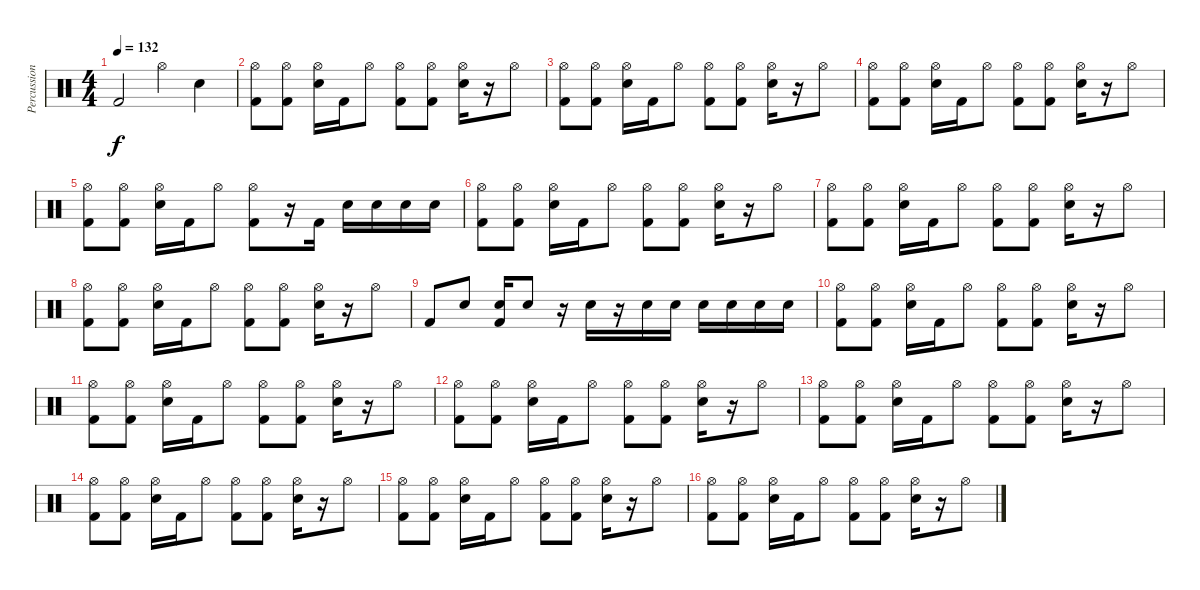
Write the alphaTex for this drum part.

\track ("Percussion" "Percussion") {instrument percussion}
\staff {score}
\articulation defaults
\ts (4 4)
\tempo 132
\clef neutral
\ks c "Kick (hit) 2".2{dy f} "Hi-Hat (open)".4 "Snare (hit) 2".4
|
("Hi-Hat (open)" "Kick (hit) 2").8 ("Hi-Hat (open)" "Kick (hit) 2").8 ("Hi-Hat (open)" "Snare (hit) 2").16 "Kick (hit) 2".16 "Hi-Hat (open)".8 ("Hi-Hat (open)" "Kick (hit) 2").8 ("Hi-Hat (open)" "Kick (hit) 2").8 ("Hi-Hat (open)" "Snare (hit) 2").16 r.16 "Hi-Hat (open)".8 |
("Hi-Hat (open)" "Kick (hit) 2").8 ("Hi-Hat (open)" "Kick (hit) 2").8 ("Hi-Hat (open)" "Snare (hit) 2").16 "Kick (hit) 2".16 "Hi-Hat (open)".8 ("Hi-Hat (open)" "Kick (hit) 2").8 ("Hi-Hat (open)" "Kick (hit) 2").8 ("Hi-Hat (open)" "Snare (hit) 2").16 r.16 "Hi-Hat (open)".8 |
("Hi-Hat (open)" "Kick (hit) 2").8 ("Hi-Hat (open)" "Kick (hit) 2").8 ("Hi-Hat (open)" "Snare (hit) 2").16 "Kick (hit) 2".16 "Hi-Hat (open)".8 ("Hi-Hat (open)" "Kick (hit) 2").8 ("Hi-Hat (open)" "Kick (hit) 2").8 ("Hi-Hat (open)" "Snare (hit) 2").16 r.16 "Hi-Hat (open)".8 |
("Hi-Hat (open)" "Kick (hit) 2").8 ("Hi-Hat (open)" "Kick (hit) 2").8 ("Hi-Hat (open)" "Snare (hit) 2").16 "Kick (hit) 2".16 "Hi-Hat (open)".8 ("Hi-Hat (open)" "Kick (hit) 2").8 r.16 "Kick (hit) 2".16 "Snare (hit) 2".16 "Snare (hit) 2".16 "Snare (hit) 2".16 "Snare (hit) 2".16 |
("Hi-Hat (open)" "Kick (hit) 2").8 ("Hi-Hat (open)" "Kick (hit) 2").8 ("Hi-Hat (open)" "Snare (hit) 2").16 "Kick (hit) 2".16 "Hi-Hat (open)".8 ("Hi-Hat (open)" "Kick (hit) 2").8 ("Hi-Hat (open)" "Kick (hit) 2").8 ("Hi-Hat (open)" "Snare (hit) 2").16 r.16 "Hi-Hat (open)".8 |
("Hi-Hat (open)" "Kick (hit) 2").8 ("Hi-Hat (open)" "Kick (hit) 2").8 ("Hi-Hat (open)" "Snare (hit) 2").16 "Kick (hit) 2".16 "Hi-Hat (open)".8 ("Hi-Hat (open)" "Kick (hit) 2").8 ("Hi-Hat (open)" "Kick (hit) 2").8 ("Hi-Hat (open)" "Snare (hit) 2").16 r.16 "Hi-Hat (open)".8 |
("Hi-Hat (open)" "Kick (hit) 2").8 ("Hi-Hat (open)" "Kick (hit) 2").8 ("Hi-Hat (open)" "Snare (hit) 2").16 "Kick (hit) 2".16 "Hi-Hat (open)".8 ("Hi-Hat (open)" "Kick (hit) 2").8 ("Hi-Hat (open)" "Kick (hit) 2").8 ("Hi-Hat (open)" "Snare (hit) 2").16 r.16 "Hi-Hat (open)".8 |
"Kick (hit) 2".8 "Snare (hit) 2".8 ("Snare (hit) 2" "Kick (hit) 2").16 "Snare (hit) 2".8 r.16 "Snare (hit) 2".16 r.16 "Snare (hit) 2".16 "Snare (hit) 2".16 "Snare (hit) 2".16 "Snare (hit) 2".16 "Snare (hit) 2".16 "Snare (hit) 2".16 |
("Hi-Hat (open)" "Kick (hit) 2").8 ("Hi-Hat (open)" "Kick (hit) 2").8 ("Hi-Hat (open)" "Snare (hit) 2").16 "Kick (hit) 2".16 "Hi-Hat (open)".8 ("Hi-Hat (open)" "Kick (hit) 2").8 ("Hi-Hat (open)" "Kick (hit) 2").8 ("Hi-Hat (open)" "Snare (hit) 2").16 r.16 "Hi-Hat (open)".8 |
("Hi-Hat (open)" "Kick (hit) 2").8 ("Hi-Hat (open)" "Kick (hit) 2").8 ("Hi-Hat (open)" "Snare (hit) 2").16 "Kick (hit) 2".16 "Hi-Hat (open)".8 ("Hi-Hat (open)" "Kick (hit) 2").8 ("Hi-Hat (open)" "Kick (hit) 2").8 ("Hi-Hat (open)" "Snare (hit) 2").16 r.16 "Hi-Hat (open)".8 |
("Hi-Hat (open)" "Kick (hit) 2").8 ("Hi-Hat (open)" "Kick (hit) 2").8 ("Hi-Hat (open)" "Snare (hit) 2").16 "Kick (hit) 2".16 "Hi-Hat (open)".8 ("Hi-Hat (open)" "Kick (hit) 2").8 ("Hi-Hat (open)" "Kick (hit) 2").8 ("Hi-Hat (open)" "Snare (hit) 2").16 r.16 "Hi-Hat (open)".8 |
("Hi-Hat (open)" "Kick (hit) 2").8 ("Hi-Hat (open)" "Kick (hit) 2").8 ("Hi-Hat (open)" "Snare (hit) 2").16 "Kick (hit) 2".16 "Hi-Hat (open)".8 ("Hi-Hat (open)" "Kick (hit) 2").8 ("Hi-Hat (open)" "Kick (hit) 2").8 ("Hi-Hat (open)" "Snare (hit) 2").16 r.16 "Hi-Hat (open)".8 |
("Hi-Hat (open)" "Kick (hit) 2").8 ("Hi-Hat (open)" "Kick (hit) 2").8 ("Hi-Hat (open)" "Snare (hit) 2").16 "Kick (hit) 2".16 "Hi-Hat (open)".8 ("Hi-Hat (open)" "Kick (hit) 2").8 ("Hi-Hat (open)" "Kick (hit) 2").8 ("Hi-Hat (open)" "Snare (hit) 2").16 r.16 "Hi-Hat (open)".8 |
("Hi-Hat (open)" "Kick (hit) 2").8 ("Hi-Hat (open)" "Kick (hit) 2").8 ("Hi-Hat (open)" "Snare (hit) 2").16 "Kick (hit) 2".16 "Hi-Hat (open)".8 ("Hi-Hat (open)" "Kick (hit) 2").8 ("Hi-Hat (open)" "Kick (hit) 2").8 ("Hi-Hat (open)" "Snare (hit) 2").16 r.16 "Hi-Hat (open)".8 |
("Hi-Hat (open)" "Kick (hit) 2").8 ("Hi-Hat (open)" "Kick (hit) 2").8 ("Hi-Hat (open)" "Snare (hit) 2").16 "Kick (hit) 2".16 "Hi-Hat (open)".8 ("Hi-Hat (open)" "Kick (hit) 2").8 ("Hi-Hat (open)" "Kick (hit) 2").8 ("Hi-Hat (open)" "Snare (hit) 2").16 r.16 "Hi-Hat (open)".8
